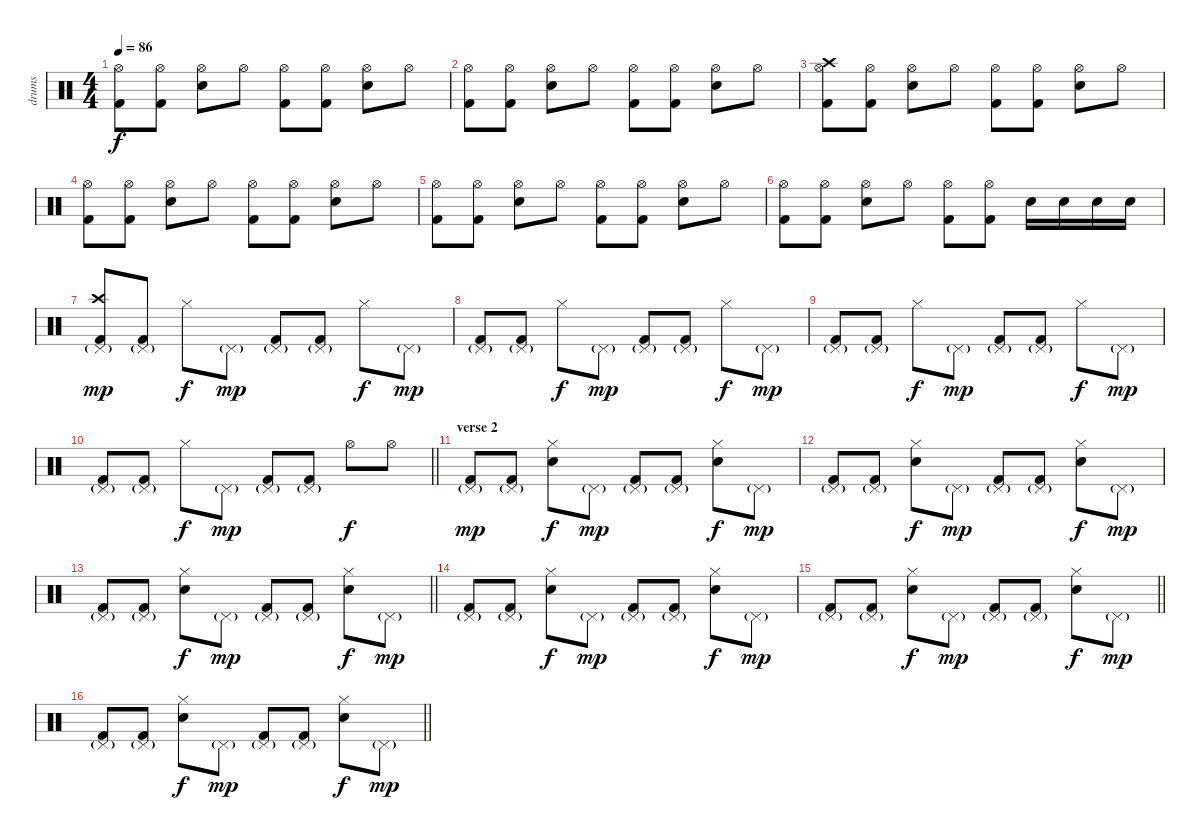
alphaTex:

\track ("drums" "drums") {instrument percussion}
\staff {score}
\articulation defaults
\ts (4 4)
\tempo 86
\clef neutral
\ks c
("Kick (hit) 2" "Hi-Hat (open)").8{dy f} ("Kick (hit) 2" "Hi-Hat (open)").8 ("Electric Snare (hit)" "Hi-Hat (open)").8 "Hi-Hat (open)".8 ("Kick (hit) 2" "Hi-Hat (open)").8 ("Kick (hit) 2" "Hi-Hat (open)").8 ("Electric Snare (hit)" "Hi-Hat (open)").8 "Hi-Hat (open)".8 |
("Kick (hit) 2" "Hi-Hat (open)").8 ("Kick (hit) 2" "Hi-Hat (open)").8 ("Electric Snare (hit)" "Hi-Hat (open)").8 "Hi-Hat (open)".8 ("Kick (hit) 2" "Hi-Hat (open)").8 ("Kick (hit) 2" "Hi-Hat (open)").8 ("Electric Snare (hit)" "Hi-Hat (open)").8 "Hi-Hat (open)".8 |
("Kick (hit) 2" "Hi-Hat (open)" "Crash high (hit)").8 ("Kick (hit) 2" "Hi-Hat (open)").8 ("Electric Snare (hit)" "Hi-Hat (open)").8 "Hi-Hat (open)".8 ("Kick (hit) 2" "Hi-Hat (open)").8 ("Kick (hit) 2" "Hi-Hat (open)").8 ("Electric Snare (hit)" "Hi-Hat (open)").8 "Hi-Hat (open)".8 |
("Kick (hit) 2" "Hi-Hat (open)").8 ("Kick (hit) 2" "Hi-Hat (open)").8 ("Electric Snare (hit)" "Hi-Hat (open)").8 "Hi-Hat (open)".8 ("Kick (hit) 2" "Hi-Hat (open)").8 ("Kick (hit) 2" "Hi-Hat (open)").8 ("Electric Snare (hit)" "Hi-Hat (open)").8 "Hi-Hat (open)".8 |
("Kick (hit) 2" "Hi-Hat (open)").8 ("Kick (hit) 2" "Hi-Hat (open)").8 ("Electric Snare (hit)" "Hi-Hat (open)").8 "Hi-Hat (open)".8 ("Kick (hit) 2" "Hi-Hat (open)").8 ("Kick (hit) 2" "Hi-Hat (open)").8 ("Electric Snare (hit)" "Hi-Hat (open)").8 "Hi-Hat (open)".8 |
("Kick (hit) 2" "Hi-Hat (open)").8 ("Kick (hit) 2" "Hi-Hat (open)").8 ("Electric Snare (hit)" "Hi-Hat (open)").8 "Hi-Hat (open)".8 ("Kick (hit) 2" "Hi-Hat (open)").8 ("Kick (hit) 2" "Hi-Hat (open)").8 "Electric Snare (hit)".16 "Electric Snare (hit)".16 "Electric Snare (hit)".16 "Electric Snare (hit)".16 |
("Kick (hit) 2" "Pedal Hi-Hat (hit)"{g} "Crash high (hit)").8{dy mp} ("Kick (hit) 2" "Pedal Hi-Hat (hit)"{g}).8 "Hi-Hat (closed)".8{dy f} "Pedal Hi-Hat (hit)"{g}.8{dy mp} ("Kick (hit) 2" "Pedal Hi-Hat (hit)"{g}).8 ("Kick (hit) 2" "Pedal Hi-Hat (hit)"{g}).8 "Hi-Hat (closed)".8{dy f} "Pedal Hi-Hat (hit)"{g}.8{dy mp} |
("Kick (hit) 2" "Pedal Hi-Hat (hit)"{g}).8 ("Kick (hit) 2" "Pedal Hi-Hat (hit)"{g}).8 "Hi-Hat (closed)".8{dy f} "Pedal Hi-Hat (hit)"{g}.8{dy mp} ("Kick (hit) 2" "Pedal Hi-Hat (hit)"{g}).8 ("Kick (hit) 2" "Pedal Hi-Hat (hit)"{g}).8 "Hi-Hat (closed)".8{dy f} "Pedal Hi-Hat (hit)"{g}.8{dy mp} |
("Kick (hit) 2" "Pedal Hi-Hat (hit)"{g}).8 ("Kick (hit) 2" "Pedal Hi-Hat (hit)"{g}).8 "Hi-Hat (closed)".8{dy f} "Pedal Hi-Hat (hit)"{g}.8{dy mp} ("Kick (hit) 2" "Pedal Hi-Hat (hit)"{g}).8 ("Kick (hit) 2" "Pedal Hi-Hat (hit)"{g}).8 "Hi-Hat (closed)".8{dy f} "Pedal Hi-Hat (hit)"{g}.8{dy mp} |
\barLineRight lightlight
("Kick (hit) 2" "Pedal Hi-Hat (hit)"{g}).8 ("Kick (hit) 2" "Pedal Hi-Hat (hit)"{g}).8 "Hi-Hat (closed)".8{dy f} "Pedal Hi-Hat (hit)"{g}.8{dy mp} ("Kick (hit) 2" "Pedal Hi-Hat (hit)"{g}).8 ("Kick (hit) 2" "Pedal Hi-Hat (hit)"{g}).8 "Hi-Hat (open)".8{dy f} "Hi-Hat (open)".8 |
\section ("" "verse 2")
("Kick (hit) 2" "Pedal Hi-Hat (hit)"{g}).8{dy mp} ("Kick (hit) 2" "Pedal Hi-Hat (hit)"{g}).8 ("Electric Snare (hit)" "Hi-Hat (closed)").8{dy f} "Pedal Hi-Hat (hit)"{g}.8{dy mp} ("Kick (hit) 2" "Pedal Hi-Hat (hit)"{g}).8 ("Kick (hit) 2" "Pedal Hi-Hat (hit)"{g}).8 ("Electric Snare (hit)" "Hi-Hat (closed)").8{dy f} "Pedal Hi-Hat (hit)"{g}.8{dy mp} |
("Kick (hit) 2" "Pedal Hi-Hat (hit)"{g}).8 ("Kick (hit) 2" "Pedal Hi-Hat (hit)"{g}).8 ("Electric Snare (hit)" "Hi-Hat (closed)").8{dy f} "Pedal Hi-Hat (hit)"{g}.8{dy mp} ("Kick (hit) 2" "Pedal Hi-Hat (hit)"{g}).8 ("Kick (hit) 2" "Pedal Hi-Hat (hit)"{g}).8 ("Electric Snare (hit)" "Hi-Hat (closed)").8{dy f} "Pedal Hi-Hat (hit)"{g}.8{dy mp} |
\barLineRight lightlight
("Kick (hit) 2" "Pedal Hi-Hat (hit)"{g}).8 ("Kick (hit) 2" "Pedal Hi-Hat (hit)"{g}).8 ("Electric Snare (hit)" "Hi-Hat (closed)").8{dy f} "Pedal Hi-Hat (hit)"{g}.8{dy mp} ("Kick (hit) 2" "Pedal Hi-Hat (hit)"{g}).8 ("Kick (hit) 2" "Pedal Hi-Hat (hit)"{g}).8 ("Electric Snare (hit)" "Hi-Hat (closed)").8{dy f} "Pedal Hi-Hat (hit)"{g}.8{dy mp} |
("Kick (hit) 2" "Pedal Hi-Hat (hit)"{g}).8 ("Kick (hit) 2" "Pedal Hi-Hat (hit)"{g}).8 ("Electric Snare (hit)" "Hi-Hat (closed)").8{dy f} "Pedal Hi-Hat (hit)"{g}.8{dy mp} ("Kick (hit) 2" "Pedal Hi-Hat (hit)"{g}).8 ("Kick (hit) 2" "Pedal Hi-Hat (hit)"{g}).8 ("Electric Snare (hit)" "Hi-Hat (closed)").8{dy f} "Pedal Hi-Hat (hit)"{g}.8{dy mp} |
\barLineRight lightlight
("Kick (hit) 2" "Pedal Hi-Hat (hit)"{g}).8 ("Kick (hit) 2" "Pedal Hi-Hat (hit)"{g}).8 ("Electric Snare (hit)" "Hi-Hat (closed)").8{dy f} "Pedal Hi-Hat (hit)"{g}.8{dy mp} ("Kick (hit) 2" "Pedal Hi-Hat (hit)"{g}).8 ("Kick (hit) 2" "Pedal Hi-Hat (hit)"{g}).8 ("Electric Snare (hit)" "Hi-Hat (closed)").8{dy f} "Pedal Hi-Hat (hit)"{g}.8{dy mp} |
\barLineRight lightlight
("Kick (hit) 2" "Pedal Hi-Hat (hit)"{g}).8 ("Kick (hit) 2" "Pedal Hi-Hat (hit)"{g}).8 ("Electric Snare (hit)" "Hi-Hat (closed)").8{dy f} "Pedal Hi-Hat (hit)"{g}.8{dy mp} ("Kick (hit) 2" "Pedal Hi-Hat (hit)"{g}).8 ("Kick (hit) 2" "Pedal Hi-Hat (hit)"{g}).8 ("Electric Snare (hit)" "Hi-Hat (closed)").8{dy f} "Pedal Hi-Hat (hit)"{g}.8{dy mp}
